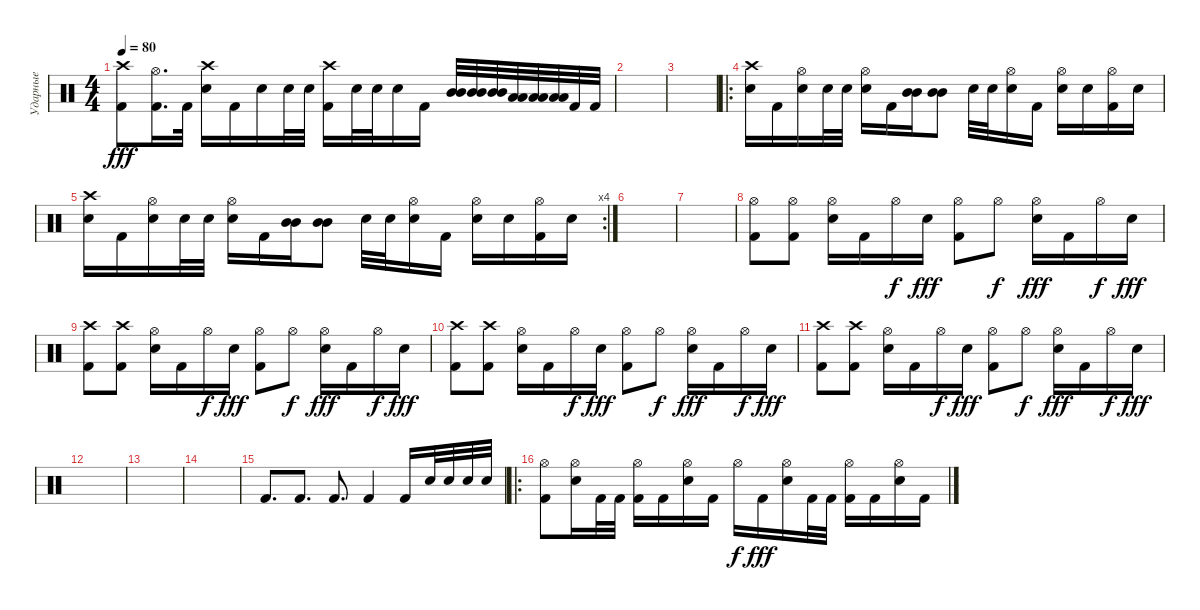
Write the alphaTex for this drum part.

\track ("Ударные" "Ударные") {instrument percussion}
\staff {score}
\articulation defaults
\ts (4 4)
\tempo 80
\clef neutral
\ks c
("Crash high (hit)" "Kick (hit) 2").8{dy fff} ("Hi-Hat (open)" "Kick (hit) 2").16{d} "Kick (hit) 2".32 ("Crash high (hit)" "Electric Snare (hit)").16 "Kick (hit) 2".16 "Electric Snare (hit)".16 "Electric Snare (hit)".32 "Electric Snare (hit)".32 ("Crash high (hit)" "Kick (hit) 2").16 "Electric Snare (hit)".32 "Electric Snare (hit)".32 "Electric Snare (hit)".16 "Kick (hit) 2".16 ("Mid Tom (hit)" "Mid Tom (hit)").32 ("Mid Tom (hit)" "Mid Tom (hit)").32 ("Mid Tom (hit)" "Mid Tom (hit)").32 ("Low Tom (hit)" "Low Tom (hit)").32 ("Low Tom (hit)" "Low Tom (hit)").32 ("Low Tom (hit)" "Low Tom (hit)").32 "Kick (hit) 2".32 "Kick (hit) 2".32 |
|
|
\ro
("Crash high (hit)" "Electric Snare (hit)").16 "Kick (hit) 2".16 ("Hi-Hat (open)" "Electric Snare (hit)").16 "Electric Snare (hit)".32 "Electric Snare (hit)".32 ("Hi-Hat (open)" "Electric Snare (hit)").16 "Kick (hit) 2".16 ("Mid Tom (hit)" "Mid Tom (hit)").16 ("Mid Tom (hit)" "Mid Tom (hit)").8 "Electric Snare (hit)".32 "Electric Snare (hit)".32 ("Hi-Hat (open)" "Electric Snare (hit)").16 "Kick (hit) 2".16 ("Hi-Hat (open)" "Electric Snare (hit)").16 "Electric Snare (hit)".16 ("Hi-Hat (open)" "Kick (hit) 2").16 "Electric Snare (hit)".16 |
\rc 4
("Crash high (hit)" "Electric Snare (hit)").16 "Kick (hit) 2".16 ("Hi-Hat (open)" "Electric Snare (hit)").16 "Electric Snare (hit)".32 "Electric Snare (hit)".32 ("Hi-Hat (open)" "Electric Snare (hit)").16 "Kick (hit) 2".16 ("Mid Tom (hit)" "Mid Tom (hit)").16 ("Mid Tom (hit)" "Mid Tom (hit)").8 "Electric Snare (hit)".32 "Electric Snare (hit)".32 ("Hi-Hat (open)" "Electric Snare (hit)").16 "Kick (hit) 2".16 ("Hi-Hat (open)" "Electric Snare (hit)").16 "Electric Snare (hit)".16 ("Hi-Hat (open)" "Kick (hit) 2").16 "Electric Snare (hit)".16 |
|
|
("Hi-Hat (open)" "Kick (hit) 2").8 ("Hi-Hat (open)" "Kick (hit) 2").8 ("Hi-Hat (open)" "Electric Snare (hit)").16 "Kick (hit) 2".16 "Hi-Hat (open)".16{dy f} "Electric Snare (hit)".16{dy fff} ("Hi-Hat (open)" "Kick (hit) 2").8 "Hi-Hat (open)".8{dy f} ("Hi-Hat (open)" "Electric Snare (hit)").16{dy fff} "Kick (hit) 2".16 "Hi-Hat (open)".16{dy f} "Electric Snare (hit)".16{dy fff} |
("Crash high (hit)" "Kick (hit) 2").8 ("Crash high (hit)" "Kick (hit) 2").8 ("Hi-Hat (open)" "Electric Snare (hit)").16 "Kick (hit) 2".16 "Hi-Hat (open)".16{dy f} "Electric Snare (hit)".16{dy fff} ("Hi-Hat (open)" "Kick (hit) 2").8 "Hi-Hat (open)".8{dy f} ("Hi-Hat (open)" "Electric Snare (hit)").16{dy fff} "Kick (hit) 2".16 "Hi-Hat (open)".16{dy f} "Electric Snare (hit)".16{dy fff} |
("Crash high (hit)" "Kick (hit) 2").8 ("Crash high (hit)" "Kick (hit) 2").8 ("Hi-Hat (open)" "Electric Snare (hit)").16 "Kick (hit) 2".16 "Hi-Hat (open)".16{dy f} "Electric Snare (hit)".16{dy fff} ("Hi-Hat (open)" "Kick (hit) 2").8 "Hi-Hat (open)".8{dy f} ("Hi-Hat (open)" "Electric Snare (hit)").16{dy fff} "Kick (hit) 2".16 "Hi-Hat (open)".16{dy f} "Electric Snare (hit)".16{dy fff} |
("Crash high (hit)" "Kick (hit) 2").8 ("Crash high (hit)" "Kick (hit) 2").8 ("Hi-Hat (open)" "Electric Snare (hit)").16 "Kick (hit) 2".16 "Hi-Hat (open)".16{dy f} "Electric Snare (hit)".16{dy fff} ("Hi-Hat (open)" "Kick (hit) 2").8 "Hi-Hat (open)".8{dy f} ("Hi-Hat (open)" "Electric Snare (hit)").16{dy fff} "Kick (hit) 2".16 "Hi-Hat (open)".16{dy f} "Electric Snare (hit)".16{dy fff} |
|
|
|
"Kick (hit) 2".8{d} "Kick (hit) 2".8{d} "Kick (hit) 2".8{d} "Kick (hit) 2".4 "Kick (hit) 2".16 "Electric Snare (hit)".32 "Electric Snare (hit)".32 "Electric Snare (hit)".32 "Electric Snare (hit)".32 |
\ro
("Hi-Hat (open)" "Kick (hit) 2").8 ("Hi-Hat (open)" "Electric Snare (hit)").16 "Kick (hit) 2".32 "Kick (hit) 2".32 ("Hi-Hat (open)" "Kick (hit) 2").16 "Kick (hit) 2".16 ("Hi-Hat (open)" "Electric Snare (hit)").16 "Kick (hit) 2".16 "Hi-Hat (open)".16{dy f} "Kick (hit) 2".16{dy fff} ("Hi-Hat (open)" "Electric Snare (hit)").16 "Kick (hit) 2".32 "Kick (hit) 2".32 ("Hi-Hat (open)" "Kick (hit) 2").16 "Kick (hit) 2".16 ("Hi-Hat (open)" "Electric Snare (hit)").16 "Kick (hit) 2".16
